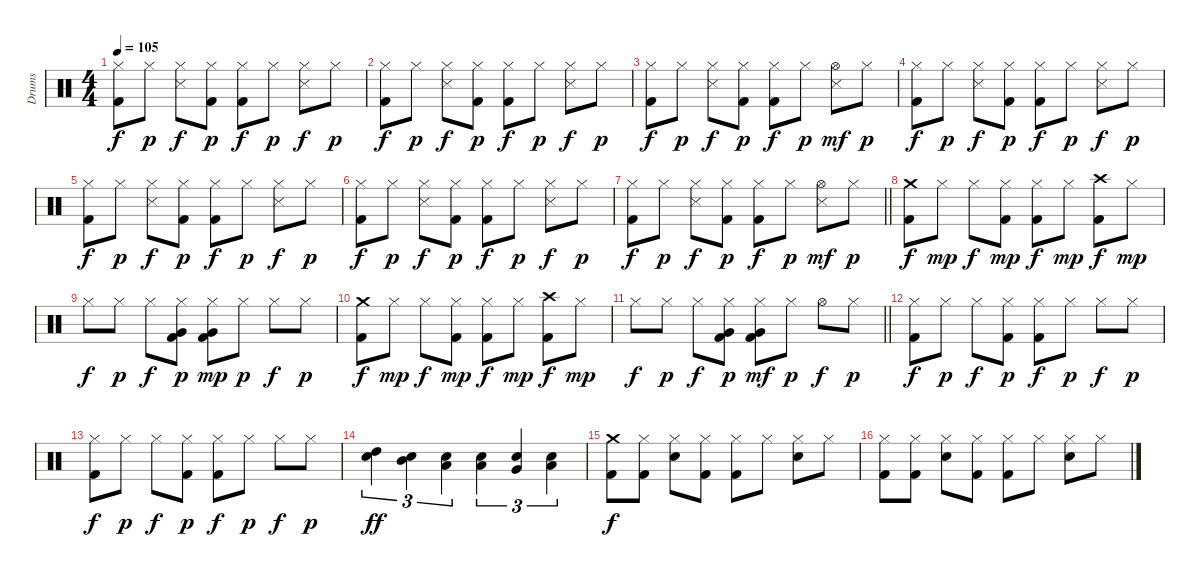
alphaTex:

\track ("Drums" "Drums") {instrument percussion}
\staff {score}
\articulation defaults
\ts (4 4)
\tempo 105
\clef neutral
\ks c
("Kick (hit) 2" "Hi-Hat (closed)").8{dy f} "Hi-Hat (closed)".8{dy p} ("Metronome (hit)" "Hi-Hat (closed)").8{dy f} ("Kick (hit) 2" "Hi-Hat (closed)").8{dy p} ("Kick (hit) 2" "Hi-Hat (closed)").8{dy f} "Hi-Hat (closed)".8{dy p} ("Metronome (hit)" "Hi-Hat (closed)").8{dy f} "Hi-Hat (closed)".8{dy p} |
("Kick (hit) 2" "Hi-Hat (closed)").8{dy f} "Hi-Hat (closed)".8{dy p} ("Metronome (hit)" "Hi-Hat (closed)").8{dy f} ("Kick (hit) 2" "Hi-Hat (closed)").8{dy p} ("Kick (hit) 2" "Hi-Hat (closed)").8{dy f} "Hi-Hat (closed)".8{dy p} ("Metronome (hit)" "Hi-Hat (closed)").8{dy f} "Hi-Hat (closed)".8{dy p} |
("Kick (hit) 2" "Hi-Hat (closed)").8{dy f} "Hi-Hat (closed)".8{dy p} ("Metronome (hit)" "Hi-Hat (closed)").8{dy f} ("Kick (hit) 2" "Hi-Hat (closed)").8{dy p} ("Kick (hit) 2" "Hi-Hat (closed)").8{dy f} "Hi-Hat (closed)".8{dy p} ("Metronome (hit)" "Hi-Hat (open)").8{dy mf} "Hi-Hat (closed)".8{dy p} |
("Kick (hit) 2" "Hi-Hat (closed)").8{dy f} "Hi-Hat (closed)".8{dy p} ("Metronome (hit)" "Hi-Hat (closed)").8{dy f} ("Kick (hit) 2" "Hi-Hat (closed)").8{dy p} ("Kick (hit) 2" "Hi-Hat (closed)").8{dy f} "Hi-Hat (closed)".8{dy p} ("Metronome (hit)" "Hi-Hat (closed)").8{dy f} "Hi-Hat (closed)".8{dy p} |
("Kick (hit) 2" "Hi-Hat (closed)").8{dy f} "Hi-Hat (closed)".8{dy p} ("Metronome (hit)" "Hi-Hat (closed)").8{dy f} ("Kick (hit) 2" "Hi-Hat (closed)").8{dy p} ("Kick (hit) 2" "Hi-Hat (closed)").8{dy f} "Hi-Hat (closed)".8{dy p} ("Metronome (hit)" "Hi-Hat (closed)").8{dy f} "Hi-Hat (closed)".8{dy p} |
("Kick (hit) 2" "Hi-Hat (closed)").8{dy f} "Hi-Hat (closed)".8{dy p} ("Metronome (hit)" "Hi-Hat (closed)").8{dy f} ("Kick (hit) 2" "Hi-Hat (closed)").8{dy p} ("Kick (hit) 2" "Hi-Hat (closed)").8{dy f} "Hi-Hat (closed)".8{dy p} ("Metronome (hit)" "Hi-Hat (closed)").8{dy f} "Hi-Hat (closed)".8{dy p} |
\barLineRight lightlight
("Kick (hit) 2" "Hi-Hat (closed)").8{dy f} "Hi-Hat (closed)".8{dy p} ("Metronome (hit)" "Hi-Hat (closed)").8{dy f} ("Kick (hit) 2" "Hi-Hat (closed)").8{dy p} ("Kick (hit) 2" "Hi-Hat (closed)").8{dy f} "Hi-Hat (closed)".8{dy p} ("Metronome (hit)" "Hi-Hat (open)").8{dy mf} "Hi-Hat (closed)".8{dy p} |
("Kick (hit) 2" "Crash medium (hit)").8{dy f} "Hi-Hat (closed)".8{dy mp} "Hi-Hat (closed)".8{dy f} ("Kick (hit) 2" "Hi-Hat (closed)").8{dy mp} ("Kick (hit) 2" "Hi-Hat (closed)").8{dy f} "Hi-Hat (closed)".8{dy mp} ("Kick (hit) 2" "Crash high (hit)").8{dy f} "Hi-Hat (closed)".8{dy mp} |
"Hi-Hat (closed)".8{dy f} "Hi-Hat (closed)".8{dy p} "Hi-Hat (closed)".8{dy f} ("Kick (hit) 2" "Very Low Tom (hit)" "Hi-Hat (closed)").8{dy p} ("Kick (hit) 2" "Very Low Tom (hit)" "Hi-Hat (closed)").8{dy mp} "Hi-Hat (closed)".8{dy p} "Hi-Hat (closed)".8{dy f} "Hi-Hat (closed)".8{dy p} |
("Kick (hit) 2" "Crash medium (hit)").8{dy f} "Hi-Hat (closed)".8{dy mp} "Hi-Hat (closed)".8{dy f} ("Kick (hit) 2" "Hi-Hat (closed)").8{dy mp} ("Kick (hit) 2" "Hi-Hat (closed)").8{dy f} "Hi-Hat (closed)".8{dy mp} ("Kick (hit) 2" "Crash high (hit)").8{dy f} "Hi-Hat (closed)".8{dy mp} |
\barLineRight lightlight "Hi-Hat (closed)".8{dy f} "Hi-Hat (closed)".8{dy p} "Hi-Hat (closed)".8{dy f}
("Kick (hit) 2" "Very Low Tom (hit)" "Hi-Hat (closed)").8{dy p} ("Kick (hit) 2" "Very Low Tom (hit)" "Hi-Hat (closed)").8{dy mf} "Hi-Hat (closed)".8{dy p} "Hi-Hat (open)".8{dy f} "Hi-Hat (closed)".8{dy p} |
("Kick (hit) 2" "Hi-Hat (closed)").8{dy f} "Hi-Hat (closed)".8{dy p} "Hi-Hat (closed)".8{dy f} ("Kick (hit) 2" "Hi-Hat (closed)").8{dy p} ("Kick (hit) 2" "Hi-Hat (closed)").8{dy f} "Hi-Hat (closed)".8{dy p} "Hi-Hat (closed)".8{dy f} "Hi-Hat (closed)".8{dy p} |
("Kick (hit) 2" "Hi-Hat (closed)").8{dy f} "Hi-Hat (closed)".8{dy p} "Hi-Hat (closed)".8{dy f} ("Kick (hit) 2" "Hi-Hat (closed)").8{dy p} ("Kick (hit) 2" "Hi-Hat (closed)").8{dy f} "Hi-Hat (closed)".8{dy p} "Hi-Hat (closed)".8{dy f} "Hi-Hat (closed)".8{dy p} |
("Snare (hit) 2" "High Tom (hit)").4{tu (3 2) dy ff} ("Snare (hit) 2" "Mid Tom (hit)").4{tu (3 2)} ("Snare (hit) 2" "Low Tom (hit)").4{tu (3 2)} ("Snare (hit) 2" "Low Tom (hit)").4{tu (3 2)} ("Snare (hit) 2" "Very Low Tom (hit)").4{tu (3 2)} ("Snare (hit) 2" "Low Floor Tom (hit)").4{tu (3 2)} |
("Kick (hit) 2" "Crash medium (hit)").8{dy f} ("Kick (hit) 2" "Hi-Hat (closed)").8 ("Snare (hit) 2" "Hi-Hat (closed)").8 ("Kick (hit) 2" "Hi-Hat (closed)").8 ("Kick (hit) 2" "Hi-Hat (closed)").8 "Hi-Hat (closed)".8 ("Snare (hit) 2" "Hi-Hat (closed)").8 "Hi-Hat (closed)".8 |
("Kick (hit) 2" "Hi-Hat (closed)").8 ("Kick (hit) 2" "Hi-Hat (closed)").8 ("Snare (hit) 2" "Hi-Hat (closed)").8 ("Kick (hit) 2" "Hi-Hat (closed)").8 ("Kick (hit) 2" "Hi-Hat (closed)").8 "Hi-Hat (closed)".8 ("Snare (hit) 2" "Hi-Hat (closed)").8 "Hi-Hat (closed)".8
